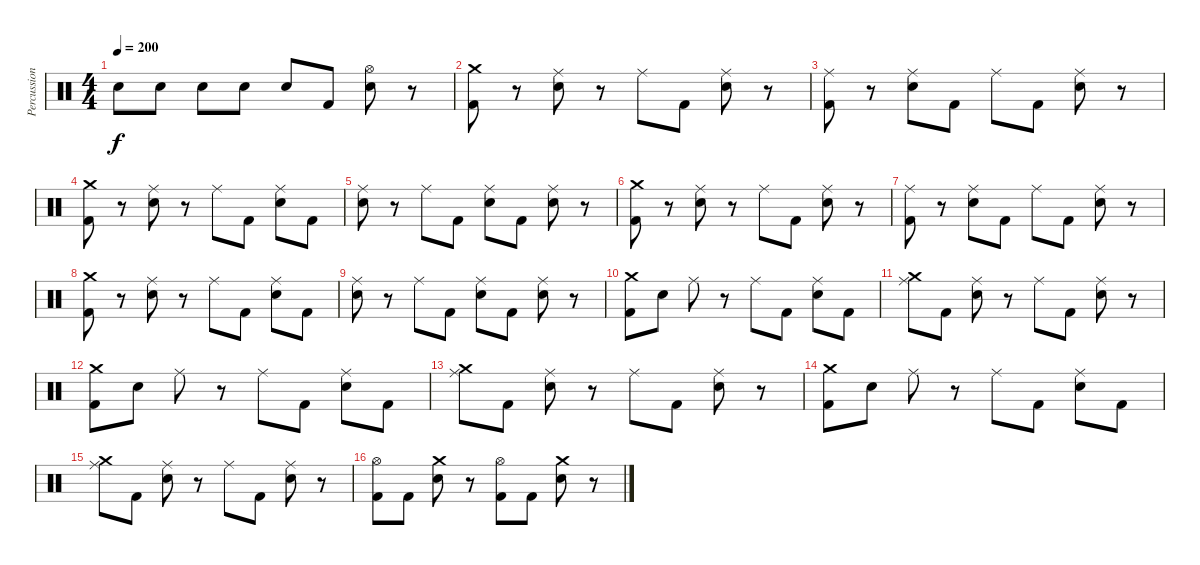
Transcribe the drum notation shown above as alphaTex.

\track ("Percussion" "Percussion") {instrument percussion}
\staff {score}
\articulation defaults
\ts (4 4)
\tempo 200
\clef neutral
\ks c "Snare (hit) 2".8{dy f} "Snare (hit) 2".8 "Snare (hit) 2".8 "Snare (hit) 2".8 "Snare (hit) 2".8 "Kick (hit) 2".8
("Hi-Hat (open)" "Snare (hit) 2").8 r.8 |
("Crash medium (hit)" "Kick (hit) 2").8 r.8 ("Ride (middle)" "Snare (hit) 2").8 r.8 "Ride (middle)".8 "Kick (hit) 2".8 ("Ride (middle)" "Snare (hit) 2").8 r.8 |
("Ride (middle)" "Kick (hit) 2").8 r.8 ("Ride (middle)" "Snare (hit) 2").8 "Kick (hit) 2".8 "Ride (middle)".8 "Kick (hit) 2".8 ("Ride (middle)" "Snare (hit) 2").8 r.8 |
("Crash medium (hit)" "Kick (hit) 2").8 r.8 ("Ride (middle)" "Snare (hit) 2").8 r.8 "Ride (middle)".8 "Kick (hit) 2".8 ("Ride (middle)" "Snare (hit) 2").8 "Kick (hit) 2".8 |
("Ride (middle)" "Snare (hit) 2").8 r.8 "Ride (middle)".8 "Kick (hit) 2".8 ("Ride (middle)" "Snare (hit) 2").8 "Kick (hit) 2".8 ("Ride (middle)" "Snare (hit) 2").8 r.8 |
("Crash medium (hit)" "Kick (hit) 2").8 r.8 ("Ride (middle)" "Snare (hit) 2").8 r.8 "Ride (middle)".8 "Kick (hit) 2".8 ("Ride (middle)" "Snare (hit) 2").8 r.8 |
("Ride (middle)" "Kick (hit) 2").8 r.8 ("Ride (middle)" "Snare (hit) 2").8 "Kick (hit) 2".8 "Ride (middle)".8 "Kick (hit) 2".8 ("Ride (middle)" "Snare (hit) 2").8 r.8 |
("Crash medium (hit)" "Kick (hit) 2").8 r.8 ("Ride (middle)" "Snare (hit) 2").8 r.8 "Ride (middle)".8 "Kick (hit) 2".8 ("Ride (middle)" "Snare (hit) 2").8 "Kick (hit) 2".8 |
("Ride (middle)" "Snare (hit) 2").8 r.8 "Ride (middle)".8 "Kick (hit) 2".8 ("Ride (middle)" "Snare (hit) 2").8 "Kick (hit) 2".8 ("Ride (middle)" "Snare (hit) 2").8 r.8 |
("Crash medium (hit)" "Kick (hit) 2").8 "Snare (hit) 2".8 "Ride (middle)".8 r.8 "Ride (middle)".8 "Kick (hit) 2".8 ("Ride (middle)" "Snare (hit) 2").8 "Kick (hit) 2".8 |
("Crash medium (hit)" "Ride (middle)").8 "Kick (hit) 2".8 ("Ride (middle)" "Snare (hit) 2").8 r.8 "Ride (middle)".8 "Kick (hit) 2".8 ("Ride (middle)" "Snare (hit) 2").8 r.8 |
("Crash medium (hit)" "Kick (hit) 2").8 "Snare (hit) 2".8 "Ride (middle)".8 r.8 "Ride (middle)".8 "Kick (hit) 2".8 ("Ride (middle)" "Snare (hit) 2").8 "Kick (hit) 2".8 |
("Crash medium (hit)" "Ride (middle)").8 "Kick (hit) 2".8 ("Ride (middle)" "Snare (hit) 2").8 r.8 "Ride (middle)".8 "Kick (hit) 2".8 ("Ride (middle)" "Snare (hit) 2").8 r.8 |
("Crash medium (hit)" "Kick (hit) 2").8 "Snare (hit) 2".8 "Ride (middle)".8 r.8 "Ride (middle)".8 "Kick (hit) 2".8 ("Ride (middle)" "Snare (hit) 2").8 "Kick (hit) 2".8 |
("Crash medium (hit)" "Ride (middle)").8 "Kick (hit) 2".8 ("Ride (middle)" "Snare (hit) 2").8 r.8 "Ride (middle)".8 "Kick (hit) 2".8 ("Ride (middle)" "Snare (hit) 2").8 r.8 |
("Hi-Hat (open)" "Kick (hit) 2").8 "Kick (hit) 2".8 ("Crash medium (hit)" "Snare (hit) 2").8 r.8 ("Hi-Hat (open)" "Kick (hit) 2").8 "Kick (hit) 2".8 ("Crash medium (hit)" "Snare (hit) 2").8 r.8
